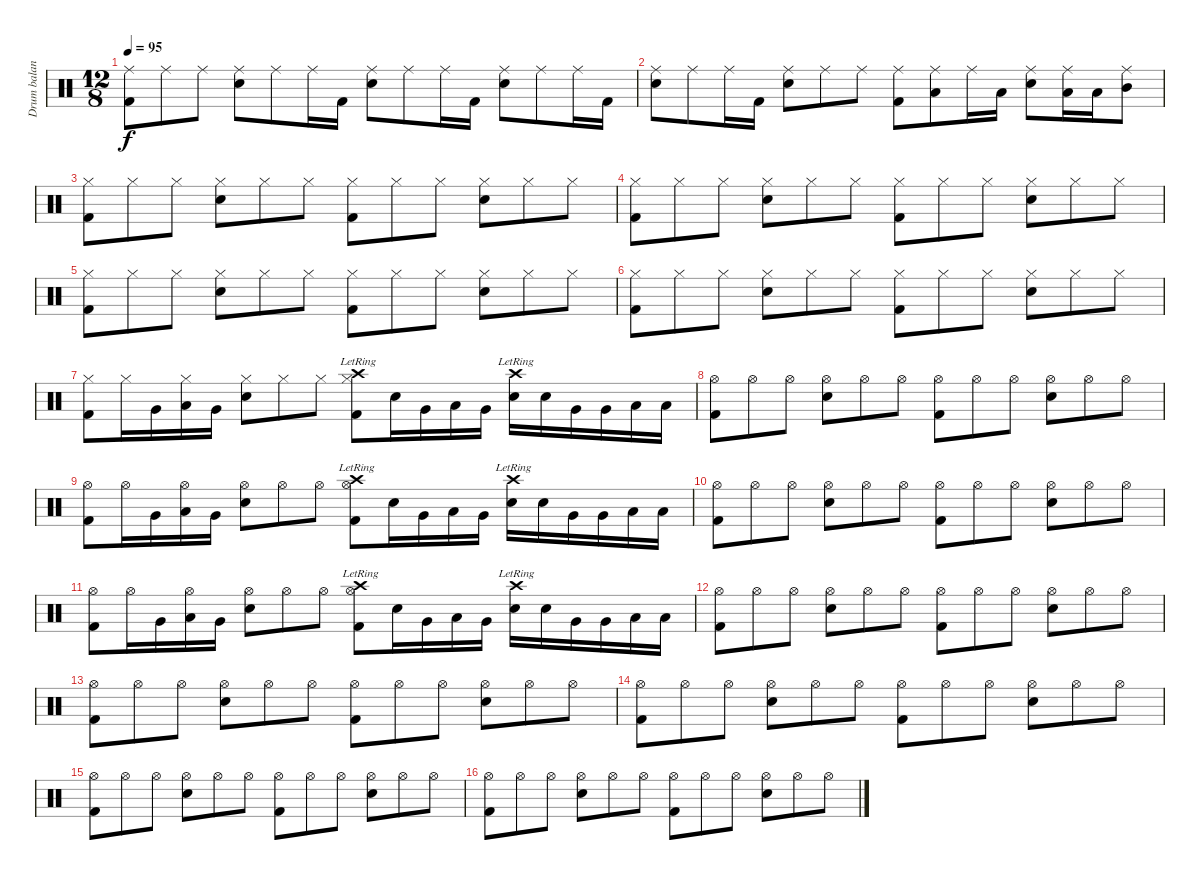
\track ("Drum balance help" "Drum balan") {instrument percussion}
\staff {score}
\articulation defaults
\ts (12 8)
\tempo 95
\clef neutral
\ks c
("Kick (hit) 2" "Ride (middle)").8{dy f} "Ride (middle)".8 "Ride (middle)".8 ("Snare (hit) 2" "Ride (middle)").8 "Ride (middle)".8 "Ride (middle)".16 "Kick (hit) 2".16 ("Snare (hit) 2" "Ride (middle)").8 "Ride (middle)".8 "Ride (middle)".16 "Kick (hit) 2".16 ("Snare (hit) 2" "Ride (middle)").8 "Ride (middle)".8 "Ride (middle)".16 "Kick (hit) 2".16 |
("Snare (hit) 2" "Ride (middle)").8 "Ride (middle)".8 "Ride (middle)".16 "Kick (hit) 2".16 ("Snare (hit) 2" "Ride (middle)").8 "Ride (middle)".8 "Ride (middle)".8 ("Kick (hit) 2" "Ride (middle)").8 ("Ride (middle)" "Low Tom (hit)").8 "Ride (middle)".16 "Low Tom (hit)".16 ("Snare (hit) 2" "Ride (middle)").8 ("Ride (middle)" "Low Tom (hit)").16 "Low Tom (hit)".16 ("Ride (middle)" "Mid Tom (hit)").8 |
("Kick (hit) 2" "Hi-Hat (closed)").8 "Hi-Hat (closed)".8 "Hi-Hat (closed)".8 ("Snare (hit) 2" "Hi-Hat (closed)").8 "Hi-Hat (closed)".8 "Hi-Hat (closed)".8 ("Kick (hit) 2" "Hi-Hat (closed)").8 "Hi-Hat (closed)".8 "Hi-Hat (closed)".8 ("Snare (hit) 2" "Hi-Hat (closed)").8 "Hi-Hat (closed)".8 "Hi-Hat (closed)".8 |
("Kick (hit) 2" "Hi-Hat (closed)").8 "Hi-Hat (closed)".8 "Hi-Hat (closed)".8 ("Snare (hit) 2" "Hi-Hat (closed)").8 "Hi-Hat (closed)".8 "Hi-Hat (closed)".8 ("Kick (hit) 2" "Hi-Hat (closed)").8 "Hi-Hat (closed)".8 "Hi-Hat (closed)".8 ("Snare (hit) 2" "Hi-Hat (closed)").8 "Hi-Hat (closed)".8 "Hi-Hat (closed)".8 |
("Kick (hit) 2" "Hi-Hat (closed)").8 "Hi-Hat (closed)".8 "Hi-Hat (closed)".8 ("Snare (hit) 2" "Hi-Hat (closed)").8 "Hi-Hat (closed)".8 "Hi-Hat (closed)".8 ("Kick (hit) 2" "Hi-Hat (closed)").8 "Hi-Hat (closed)".8 "Hi-Hat (closed)".8 ("Snare (hit) 2" "Hi-Hat (closed)").8 "Hi-Hat (closed)".8 "Hi-Hat (closed)".8 |
("Kick (hit) 2" "Hi-Hat (closed)").8 "Hi-Hat (closed)".8 "Hi-Hat (closed)".8 ("Snare (hit) 2" "Hi-Hat (closed)").8 "Hi-Hat (closed)".8 "Hi-Hat (closed)".8 ("Kick (hit) 2" "Hi-Hat (closed)").8 "Hi-Hat (closed)".8 "Hi-Hat (closed)".8 ("Snare (hit) 2" "Hi-Hat (closed)").8 "Hi-Hat (closed)".8 "Hi-Hat (closed)".8 |
("Kick (hit) 2" "Hi-Hat (closed)").8 "Hi-Hat (closed)".16 "Very Low Tom (hit)".16 ("Hi-Hat (closed)" "Low Tom (hit)").16 "Very Low Tom (hit)".16 ("Snare (hit) 2" "Hi-Hat (closed)").8 "Hi-Hat (closed)".8 "Hi-Hat (closed)".8 ("Kick (hit) 2" "Hi-Hat (closed)" "Crash high (hit)"{lr}).8 "Snare (hit) 2".16 "Very Low Tom (hit)".16 "Low Tom (hit)".16 "Very Low Tom (hit)".16 ("Snare (hit) 2" "Crash high (hit)"{lr}).16 "Snare (hit) 2".16 "Very Low Tom (hit)".16 "Very Low Tom (hit)".16 "Low Tom (hit)".16 "Low Tom (hit)".16 |
("Kick (hit) 2" "Hi-Hat (open)").8 "Hi-Hat (open)".8 "Hi-Hat (open)".8 ("Snare (hit) 2" "Hi-Hat (open)").8 "Hi-Hat (open)".8 "Hi-Hat (open)".8 ("Kick (hit) 2" "Hi-Hat (open)").8 "Hi-Hat (open)".8 "Hi-Hat (open)".8 ("Snare (hit) 2" "Hi-Hat (open)").8 "Hi-Hat (open)".8 "Hi-Hat (open)".8 |
("Kick (hit) 2" "Hi-Hat (open)").8 "Hi-Hat (open)".16 "Very Low Tom (hit)".16 ("Hi-Hat (open)" "Low Tom (hit)").16 "Very Low Tom (hit)".16 ("Snare (hit) 2" "Hi-Hat (open)").8 "Hi-Hat (open)".8 "Hi-Hat (open)".8 ("Kick (hit) 2" "Hi-Hat (open)" "Crash high (hit)"{lr}).8 "Snare (hit) 2".16 "Very Low Tom (hit)".16 "Low Tom (hit)".16 "Very Low Tom (hit)".16 ("Snare (hit) 2" "Crash high (hit)"{lr}).16 "Snare (hit) 2".16 "Very Low Tom (hit)".16 "Very Low Tom (hit)".16 "Low Tom (hit)".16 "Low Tom (hit)".16 |
("Kick (hit) 2" "Hi-Hat (open)").8 "Hi-Hat (open)".8 "Hi-Hat (open)".8 ("Snare (hit) 2" "Hi-Hat (open)").8 "Hi-Hat (open)".8 "Hi-Hat (open)".8 ("Kick (hit) 2" "Hi-Hat (open)").8 "Hi-Hat (open)".8 "Hi-Hat (open)".8 ("Snare (hit) 2" "Hi-Hat (open)").8 "Hi-Hat (open)".8 "Hi-Hat (open)".8 |
("Kick (hit) 2" "Hi-Hat (open)").8 "Hi-Hat (open)".16 "Very Low Tom (hit)".16 ("Hi-Hat (open)" "Low Tom (hit)").16 "Very Low Tom (hit)".16 ("Snare (hit) 2" "Hi-Hat (open)").8 "Hi-Hat (open)".8 "Hi-Hat (open)".8 ("Kick (hit) 2" "Hi-Hat (open)" "Crash high (hit)"{lr}).8 "Snare (hit) 2".16 "Very Low Tom (hit)".16 "Low Tom (hit)".16 "Very Low Tom (hit)".16 ("Snare (hit) 2" "Crash high (hit)"{lr}).16 "Snare (hit) 2".16 "Very Low Tom (hit)".16 "Very Low Tom (hit)".16 "Low Tom (hit)".16 "Low Tom (hit)".16 |
("Kick (hit) 2" "Hi-Hat (open)").8 "Hi-Hat (open)".8 "Hi-Hat (open)".8 ("Snare (hit) 2" "Hi-Hat (open)").8 "Hi-Hat (open)".8 "Hi-Hat (open)".8 ("Kick (hit) 2" "Hi-Hat (open)").8 "Hi-Hat (open)".8 "Hi-Hat (open)".8 ("Snare (hit) 2" "Hi-Hat (open)").8 "Hi-Hat (open)".8 "Hi-Hat (open)".8 |
("Kick (hit) 2" "Hi-Hat (open)").8 "Hi-Hat (open)".8 "Hi-Hat (open)".8 ("Snare (hit) 2" "Hi-Hat (open)").8 "Hi-Hat (open)".8 "Hi-Hat (open)".8 ("Kick (hit) 2" "Hi-Hat (open)").8 "Hi-Hat (open)".8 "Hi-Hat (open)".8 ("Snare (hit) 2" "Hi-Hat (open)").8 "Hi-Hat (open)".8 "Hi-Hat (open)".8 |
("Kick (hit) 2" "Hi-Hat (open)").8 "Hi-Hat (open)".8 "Hi-Hat (open)".8 ("Snare (hit) 2" "Hi-Hat (open)").8 "Hi-Hat (open)".8 "Hi-Hat (open)".8 ("Kick (hit) 2" "Hi-Hat (open)").8 "Hi-Hat (open)".8 "Hi-Hat (open)".8 ("Snare (hit) 2" "Hi-Hat (open)").8 "Hi-Hat (open)".8 "Hi-Hat (open)".8 |
("Kick (hit) 2" "Hi-Hat (open)").8 "Hi-Hat (open)".8 "Hi-Hat (open)".8 ("Snare (hit) 2" "Hi-Hat (open)").8 "Hi-Hat (open)".8 "Hi-Hat (open)".8 ("Kick (hit) 2" "Hi-Hat (open)").8 "Hi-Hat (open)".8 "Hi-Hat (open)".8 ("Snare (hit) 2" "Hi-Hat (open)").8 "Hi-Hat (open)".8 "Hi-Hat (open)".8 |
("Kick (hit) 2" "Hi-Hat (open)").8 "Hi-Hat (open)".8 "Hi-Hat (open)".8 ("Snare (hit) 2" "Hi-Hat (open)").8 "Hi-Hat (open)".8 "Hi-Hat (open)".8 ("Kick (hit) 2" "Hi-Hat (open)").8 "Hi-Hat (open)".8 "Hi-Hat (open)".8 ("Snare (hit) 2" "Hi-Hat (open)").8 "Hi-Hat (open)".8 "Hi-Hat (open)".8
